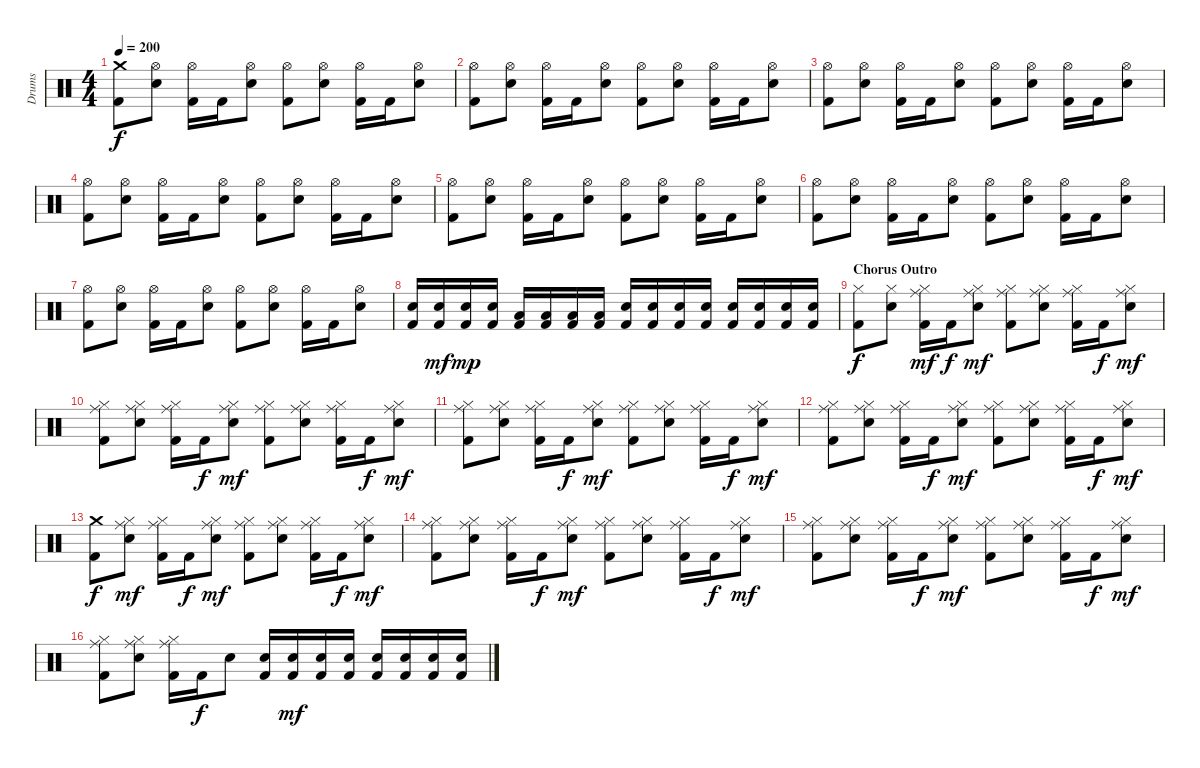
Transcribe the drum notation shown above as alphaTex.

\track ("Drums" "Drums") {instrument percussion}
\staff {score}
\articulation defaults
\ts (4 4)
\tempo 200
\clef neutral
\ks c
("Crash medium (hit)" "Kick (hit) 2").8{dy f} ("Hi-Hat (open)" "Snare (hit) 2").8 ("Hi-Hat (open)" "Kick (hit) 2").16 "Kick (hit) 2".16 ("Hi-Hat (open)" "Snare (hit) 2").8 ("Hi-Hat (open)" "Kick (hit) 2").8 ("Hi-Hat (open)" "Snare (hit) 2").8 ("Hi-Hat (open)" "Kick (hit) 2").16 "Kick (hit) 2".16 ("Hi-Hat (open)" "Snare (hit) 2").8 |
("Hi-Hat (open)" "Kick (hit) 2").8 ("Hi-Hat (open)" "Snare (hit) 2").8 ("Hi-Hat (open)" "Kick (hit) 2").16 "Kick (hit) 2".16 ("Hi-Hat (open)" "Snare (hit) 2").8 ("Hi-Hat (open)" "Kick (hit) 2").8 ("Hi-Hat (open)" "Snare (hit) 2").8 ("Hi-Hat (open)" "Kick (hit) 2").16 "Kick (hit) 2".16 ("Hi-Hat (open)" "Snare (hit) 2").8 |
("Hi-Hat (open)" "Kick (hit) 2").8 ("Hi-Hat (open)" "Snare (hit) 2").8 ("Hi-Hat (open)" "Kick (hit) 2").16 "Kick (hit) 2".16 ("Hi-Hat (open)" "Snare (hit) 2").8 ("Hi-Hat (open)" "Kick (hit) 2").8 ("Hi-Hat (open)" "Snare (hit) 2").8 ("Hi-Hat (open)" "Kick (hit) 2").16 "Kick (hit) 2".16 ("Hi-Hat (open)" "Snare (hit) 2").8 |
("Hi-Hat (open)" "Kick (hit) 2").8 ("Hi-Hat (open)" "Snare (hit) 2").8 ("Hi-Hat (open)" "Kick (hit) 2").16 "Kick (hit) 2".16 ("Hi-Hat (open)" "Snare (hit) 2").8 ("Hi-Hat (open)" "Kick (hit) 2").8 ("Hi-Hat (open)" "Snare (hit) 2").8 ("Hi-Hat (open)" "Kick (hit) 2").16 "Kick (hit) 2".16 ("Hi-Hat (open)" "Snare (hit) 2").8 |
("Hi-Hat (open)" "Kick (hit) 2").8 ("Hi-Hat (open)" "Snare (hit) 2").8 ("Hi-Hat (open)" "Kick (hit) 2").16 "Kick (hit) 2".16 ("Hi-Hat (open)" "Snare (hit) 2").8 ("Hi-Hat (open)" "Kick (hit) 2").8 ("Hi-Hat (open)" "Snare (hit) 2").8 ("Hi-Hat (open)" "Kick (hit) 2").16 "Kick (hit) 2".16 ("Hi-Hat (open)" "Snare (hit) 2").8 |
("Hi-Hat (open)" "Kick (hit) 2").8 ("Hi-Hat (open)" "Snare (hit) 2").8 ("Hi-Hat (open)" "Kick (hit) 2").16 "Kick (hit) 2".16 ("Hi-Hat (open)" "Snare (hit) 2").8 ("Hi-Hat (open)" "Kick (hit) 2").8 ("Hi-Hat (open)" "Snare (hit) 2").8 ("Hi-Hat (open)" "Kick (hit) 2").16 "Kick (hit) 2".16 ("Hi-Hat (open)" "Snare (hit) 2").8 |
("Hi-Hat (open)" "Kick (hit) 2").8 ("Hi-Hat (open)" "Snare (hit) 2").8 ("Hi-Hat (open)" "Kick (hit) 2").16 "Kick (hit) 2".16 ("Hi-Hat (open)" "Snare (hit) 2").8 ("Hi-Hat (open)" "Kick (hit) 2").8 ("Hi-Hat (open)" "Snare (hit) 2").8 ("Hi-Hat (open)" "Kick (hit) 2").16 "Kick (hit) 2".16 ("Hi-Hat (open)" "Snare (hit) 2").8 |
("Snare (hit) 2" "Kick (hit) 2").16 ("Snare (hit) 2" "Kick (hit) 2").16{dy mf} ("Snare (hit) 2" "Kick (hit) 2").16{dy mp} ("Snare (hit) 2" "Kick (hit) 2").16 ("Low Floor Tom (hit)" "Kick (hit) 2").16 ("Low Floor Tom (hit)" "Kick (hit) 2").16 ("Low Floor Tom (hit)" "Kick (hit) 2").16 ("Low Floor Tom (hit)" "Kick (hit) 2").16 ("Snare (hit) 2" "Kick (hit) 2").16 ("Snare (hit) 2" "Kick (hit) 2").16 ("Snare (hit) 2" "Kick (hit) 2").16 ("Snare (hit) 2" "Kick (hit) 2").16 ("Snare (hit) 2" "Kick (hit) 2").16 ("Snare (hit) 2" "Kick (hit) 2").16 ("Snare (hit) 2" "Kick (hit) 2").16 ("Snare (hit) 2" "Kick (hit) 2").16 |
\section ("" "Chorus Outro")
("Hi-Hat (closed)" "Kick (hit) 2").8{dy f} ("Hi-Hat (closed)" "Snare (hit) 2").8 ("Hi-Hat (closed)" "Ride (middle)" "Kick (hit) 2").16{dy mf} "Kick (hit) 2".16{dy f} ("Hi-Hat (closed)" "Ride (middle)" "Snare (hit) 2").8{dy mf} ("Hi-Hat (closed)" "Ride (middle)" "Kick (hit) 2").8 ("Hi-Hat (closed)" "Ride (middle)" "Snare (hit) 2").8 ("Hi-Hat (closed)" "Ride (middle)" "Kick (hit) 2").16 "Kick (hit) 2".16{dy f} ("Hi-Hat (closed)" "Ride (middle)" "Snare (hit) 2").8{dy mf} |
("Hi-Hat (closed)" "Ride (middle)" "Kick (hit) 2").8 ("Hi-Hat (closed)" "Ride (middle)" "Snare (hit) 2").8 ("Hi-Hat (closed)" "Ride (middle)" "Kick (hit) 2").16 "Kick (hit) 2".16{dy f} ("Hi-Hat (closed)" "Ride (middle)" "Snare (hit) 2").8{dy mf} ("Hi-Hat (closed)" "Ride (middle)" "Kick (hit) 2").8 ("Hi-Hat (closed)" "Ride (middle)" "Snare (hit) 2").8 ("Hi-Hat (closed)" "Ride (middle)" "Kick (hit) 2").16 "Kick (hit) 2".16{dy f} ("Hi-Hat (closed)" "Ride (middle)" "Snare (hit) 2").8{dy mf} |
("Hi-Hat (closed)" "Ride (middle)" "Kick (hit) 2").8 ("Hi-Hat (closed)" "Ride (middle)" "Snare (hit) 2").8 ("Hi-Hat (closed)" "Ride (middle)" "Kick (hit) 2").16 "Kick (hit) 2".16{dy f} ("Hi-Hat (closed)" "Ride (middle)" "Snare (hit) 2").8{dy mf} ("Hi-Hat (closed)" "Ride (middle)" "Kick (hit) 2").8 ("Hi-Hat (closed)" "Ride (middle)" "Snare (hit) 2").8 ("Hi-Hat (closed)" "Ride (middle)" "Kick (hit) 2").16 "Kick (hit) 2".16{dy f} ("Hi-Hat (closed)" "Ride (middle)" "Snare (hit) 2").8{dy mf} |
("Hi-Hat (closed)" "Ride (middle)" "Kick (hit) 2").8 ("Hi-Hat (closed)" "Ride (middle)" "Snare (hit) 2").8 ("Hi-Hat (closed)" "Ride (middle)" "Kick (hit) 2").16 "Kick (hit) 2".16{dy f} ("Hi-Hat (closed)" "Ride (middle)" "Snare (hit) 2").8{dy mf} ("Hi-Hat (closed)" "Ride (middle)" "Kick (hit) 2").8 ("Hi-Hat (closed)" "Ride (middle)" "Snare (hit) 2").8 ("Hi-Hat (closed)" "Ride (middle)" "Kick (hit) 2").16 "Kick (hit) 2".16{dy f} ("Hi-Hat (closed)" "Ride (middle)" "Snare (hit) 2").8{dy mf} |
("Crash medium (hit)" "Kick (hit) 2").8{dy f} ("Hi-Hat (closed)" "Ride (middle)" "Snare (hit) 2").8{dy mf} ("Hi-Hat (closed)" "Ride (middle)" "Kick (hit) 2").16 "Kick (hit) 2".16{dy f} ("Hi-Hat (closed)" "Ride (middle)" "Snare (hit) 2").8{dy mf} ("Hi-Hat (closed)" "Ride (middle)" "Kick (hit) 2").8 ("Hi-Hat (closed)" "Ride (middle)" "Snare (hit) 2").8 ("Hi-Hat (closed)" "Ride (middle)" "Kick (hit) 2").16 "Kick (hit) 2".16{dy f} ("Hi-Hat (closed)" "Ride (middle)" "Snare (hit) 2").8{dy mf} |
("Hi-Hat (closed)" "Ride (middle)" "Kick (hit) 2").8 ("Hi-Hat (closed)" "Ride (middle)" "Snare (hit) 2").8 ("Hi-Hat (closed)" "Ride (middle)" "Kick (hit) 2").16 "Kick (hit) 2".16{dy f} ("Hi-Hat (closed)" "Ride (middle)" "Snare (hit) 2").8{dy mf} ("Hi-Hat (closed)" "Ride (middle)" "Kick (hit) 2").8 ("Hi-Hat (closed)" "Ride (middle)" "Snare (hit) 2").8 ("Hi-Hat (closed)" "Ride (middle)" "Kick (hit) 2").16 "Kick (hit) 2".16{dy f} ("Hi-Hat (closed)" "Ride (middle)" "Snare (hit) 2").8{dy mf} |
("Hi-Hat (closed)" "Ride (middle)" "Kick (hit) 2").8 ("Hi-Hat (closed)" "Ride (middle)" "Snare (hit) 2").8 ("Hi-Hat (closed)" "Ride (middle)" "Kick (hit) 2").16 "Kick (hit) 2".16{dy f} ("Hi-Hat (closed)" "Ride (middle)" "Snare (hit) 2").8{dy mf} ("Hi-Hat (closed)" "Ride (middle)" "Kick (hit) 2").8 ("Hi-Hat (closed)" "Ride (middle)" "Snare (hit) 2").8 ("Hi-Hat (closed)" "Ride (middle)" "Kick (hit) 2").16 "Kick (hit) 2".16{dy f} ("Hi-Hat (closed)" "Ride (middle)" "Snare (hit) 2").8{dy mf} |
("Hi-Hat (closed)" "Ride (middle)" "Kick (hit) 2").8 ("Hi-Hat (closed)" "Ride (middle)" "Snare (hit) 2").8 ("Hi-Hat (closed)" "Ride (middle)" "Kick (hit) 2").16 "Kick (hit) 2".16{dy f} "Snare (hit) 2".8 ("Snare (hit) 2" "Kick (hit) 2").16 ("Snare (hit) 2" "Kick (hit) 2").16{dy mf} ("Snare (hit) 2" "Kick (hit) 2").16 ("Snare (hit) 2" "Kick (hit) 2").16 ("Snare (hit) 2" "Kick (hit) 2").16 ("Snare (hit) 2" "Kick (hit) 2").16 ("Snare (hit) 2" "Kick (hit) 2").16 ("Snare (hit) 2" "Kick (hit) 2").16
